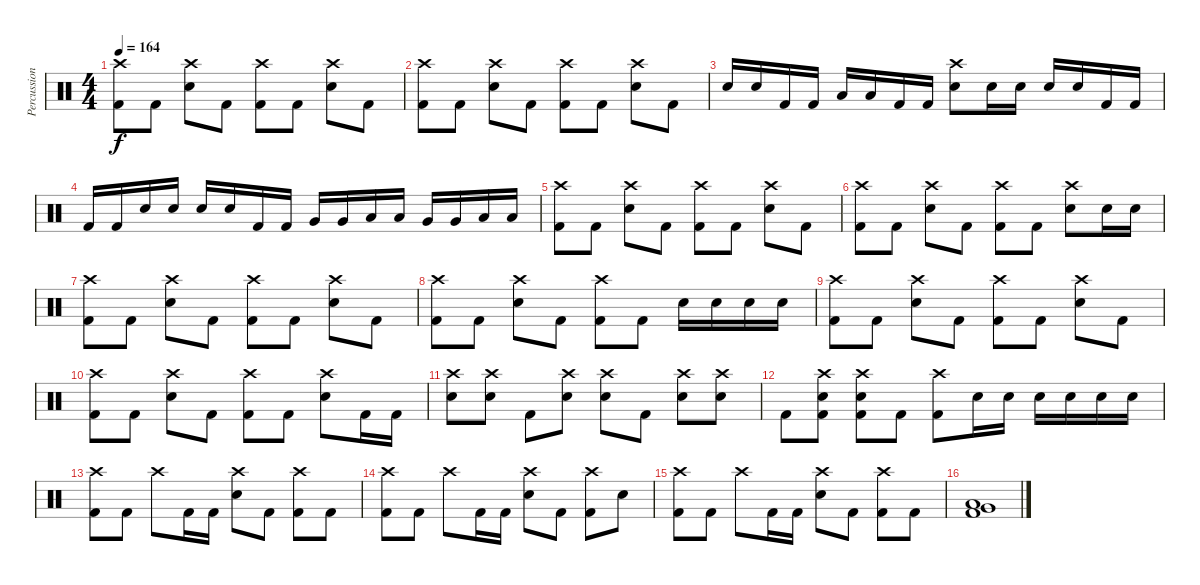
\track ("Percussion" "Percussion") {instrument percussion}
\staff {score}
\articulation defaults
\ts (4 4)
\tempo 164
\clef neutral
\ks c
("Crash high (hit)" "Kick (hit) 2").8{dy f} "Kick (hit) 2".8 ("Crash high (hit)" "Electric Snare (hit)").8 "Kick (hit) 2".8 ("Crash high (hit)" "Kick (hit) 2").8 "Kick (hit) 2".8 ("Crash high (hit)" "Electric Snare (hit)").8 "Kick (hit) 2".8 |
("Crash high (hit)" "Kick (hit) 2").8 "Kick (hit) 2".8 ("Crash high (hit)" "Electric Snare (hit)").8 "Kick (hit) 2".8 ("Crash high (hit)" "Kick (hit) 2").8 "Kick (hit) 2".8 ("Crash high (hit)" "Electric Snare (hit)").8 "Kick (hit) 2".8 |
"Electric Snare (hit)".16 "Electric Snare (hit)".16 "Kick (hit) 2".16 "Kick (hit) 2".16 "Low Tom (hit)".16 "Low Tom (hit)".16 "Kick (hit) 2".16 "Kick (hit) 2".16 ("Crash high (hit)" "Electric Snare (hit)").8 "Electric Snare (hit)".16 "Electric Snare (hit)".16 "Electric Snare (hit)".16 "Electric Snare (hit)".16 "Kick (hit) 2".16 "Kick (hit) 2".16 |
"Kick (hit) 2".16 "Kick (hit) 2".16 "Electric Snare (hit)".16 "Electric Snare (hit)".16 "Electric Snare (hit)".16 "Electric Snare (hit)".16 "Kick (hit) 2".16 "Kick (hit) 2".16 "Very Low Tom (hit)".16 "Very Low Tom (hit)".16 "Low Tom (hit)".16 "Low Tom (hit)".16 "Very Low Tom (hit)".16 "Very Low Tom (hit)".16 "Low Floor Tom (hit)".16 "Low Floor Tom (hit)".16 |
("Crash high (hit)" "Kick (hit) 2").8 "Kick (hit) 2".8 ("Crash high (hit)" "Electric Snare (hit)").8 "Kick (hit) 2".8 ("Crash high (hit)" "Kick (hit) 2").8 "Kick (hit) 2".8 ("Crash high (hit)" "Electric Snare (hit)").8 "Kick (hit) 2".8 |
("Crash high (hit)" "Kick (hit) 2").8 "Kick (hit) 2".8 ("Crash high (hit)" "Electric Snare (hit)").8 "Kick (hit) 2".8 ("Crash high (hit)" "Kick (hit) 2").8 "Kick (hit) 2".8 ("Crash high (hit)" "Electric Snare (hit)").8 "Electric Snare (hit)".16 "Electric Snare (hit)".16 |
("Crash high (hit)" "Kick (hit) 2").8 "Kick (hit) 2".8 ("Crash high (hit)" "Electric Snare (hit)").8 "Kick (hit) 2".8 ("Crash high (hit)" "Kick (hit) 2").8 "Kick (hit) 2".8 ("Crash high (hit)" "Electric Snare (hit)").8 "Kick (hit) 2".8 |
("Crash high (hit)" "Kick (hit) 2").8 "Kick (hit) 2".8 ("Crash high (hit)" "Electric Snare (hit)").8 "Kick (hit) 2".8 ("Crash high (hit)" "Kick (hit) 2").8 "Kick (hit) 2".8 "Electric Snare (hit)".16 "Electric Snare (hit)".16 "Electric Snare (hit)".16 "Electric Snare (hit)".16 |
("Crash high (hit)" "Kick (hit) 2").8 "Kick (hit) 2".8 ("Crash high (hit)" "Electric Snare (hit)").8 "Kick (hit) 2".8 ("Crash high (hit)" "Kick (hit) 2").8 "Kick (hit) 2".8 ("Crash high (hit)" "Electric Snare (hit)").8 "Kick (hit) 2".8 |
("Crash high (hit)" "Kick (hit) 2").8 "Kick (hit) 2".8 ("Crash high (hit)" "Electric Snare (hit)").8 "Kick (hit) 2".8 ("Crash high (hit)" "Kick (hit) 2").8 "Kick (hit) 2".8 ("Crash high (hit)" "Electric Snare (hit)").8 "Kick (hit) 2".16 "Kick (hit) 2".16 |
("Crash high (hit)" "Electric Snare (hit)").8 ("Crash high (hit)" "Electric Snare (hit)").8 "Kick (hit) 2".8 ("Crash high (hit)" "Electric Snare (hit)").8 ("Crash high (hit)" "Electric Snare (hit)").8 "Kick (hit) 2".8 ("Crash high (hit)" "Electric Snare (hit)").8 ("Crash high (hit)" "Electric Snare (hit)").8 |
"Kick (hit) 2".8 ("Crash high (hit)" "Electric Snare (hit)" "Kick (hit) 2").8 ("Crash high (hit)" "Electric Snare (hit)" "Kick (hit) 2").8 "Kick (hit) 2".8 ("Crash high (hit)" "Kick (hit) 2").8 "Electric Snare (hit)".16 "Electric Snare (hit)".16 "Electric Snare (hit)".16 "Electric Snare (hit)".16 "Electric Snare (hit)".16 "Electric Snare (hit)".16 |
("Crash high (hit)" "Kick (hit) 2").8 "Kick (hit) 2".8 "Crash high (hit)".8 "Kick (hit) 2".16 "Kick (hit) 2".16 ("Crash high (hit)" "Electric Snare (hit)").8 "Kick (hit) 2".8 ("Crash high (hit)" "Kick (hit) 2").8 "Kick (hit) 2".8 |
("Crash high (hit)" "Kick (hit) 2").8 "Kick (hit) 2".8 "Crash high (hit)".8 "Kick (hit) 2".16 "Kick (hit) 2".16 ("Crash high (hit)" "Electric Snare (hit)").8 "Kick (hit) 2".8 ("Crash high (hit)" "Kick (hit) 2").8 "Electric Snare (hit)".8 |
("Crash high (hit)" "Kick (hit) 2").8 "Kick (hit) 2".8 "Crash high (hit)".8 "Kick (hit) 2".16 "Kick (hit) 2".16 ("Crash high (hit)" "Electric Snare (hit)").8 "Kick (hit) 2".8 ("Crash high (hit)" "Kick (hit) 2").8 "Kick (hit) 2".8 |
("Low Floor Tom (hit)" "Very Low Tom (hit)" "Kick (hit) 2").1
